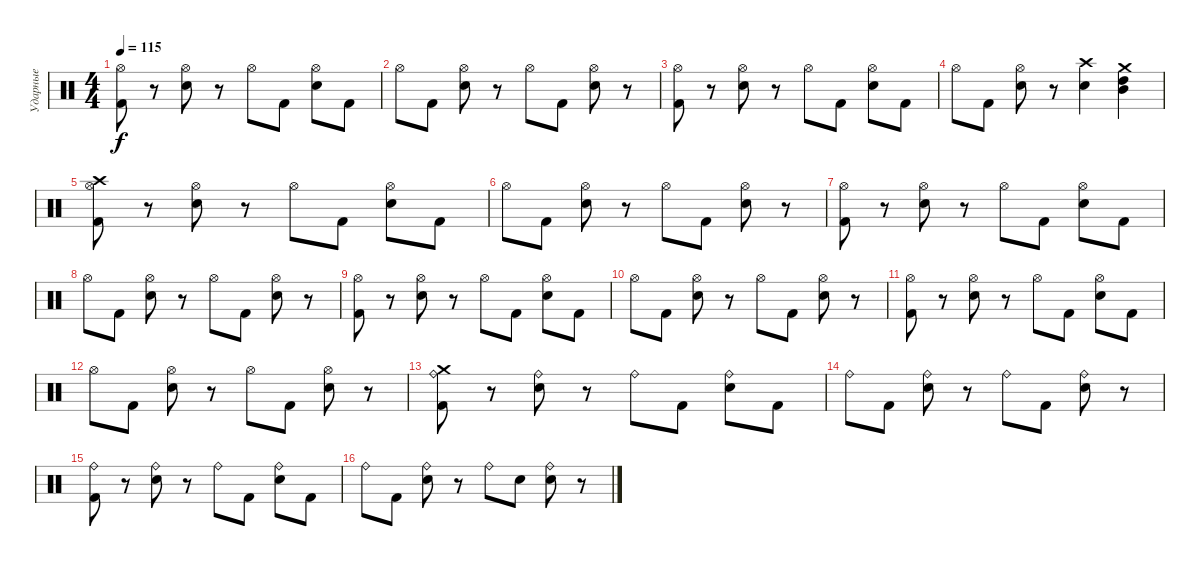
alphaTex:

\track ("Ударные" "Ударные") {instrument percussion}
\staff {score}
\articulation defaults
\ts (4 4)
\tempo 115
\clef neutral
\ks c
("Hi-Hat (open)" "Kick (hit) 2").8{dy f} r.8 ("Hi-Hat (open)" "Snare (hit) 2").8 r.8 "Hi-Hat (open)".8 "Kick (hit) 2".8 ("Hi-Hat (open)" "Snare (hit) 2").8 "Kick (hit) 2".8 |
"Hi-Hat (open)".8 "Kick (hit) 2".8 ("Hi-Hat (open)" "Snare (hit) 2").8 r.8 "Hi-Hat (open)".8 "Kick (hit) 2".8 ("Hi-Hat (open)" "Snare (hit) 2").8 r.8 |
("Hi-Hat (open)" "Kick (hit) 2").8 r.8 ("Hi-Hat (open)" "Snare (hit) 2").8 r.8 "Hi-Hat (open)".8 "Kick (hit) 2".8 ("Hi-Hat (open)" "Snare (hit) 2").8 "Kick (hit) 2".8 |
"Hi-Hat (open)".8 "Kick (hit) 2".8 ("Hi-Hat (open)" "Snare (hit) 2").8 r.8 ("Crash high (hit)" "Snare (hit) 2").4 ("Crash medium (hit)" "Mid Tom (hit)" "High Tom (hit)").4 |
("Hi-Hat (open)" "Crash high (hit)" "Kick (hit) 2").8 r.8 ("Hi-Hat (open)" "Snare (hit) 2").8 r.8 "Hi-Hat (open)".8 "Kick (hit) 2".8 ("Hi-Hat (open)" "Snare (hit) 2").8 "Kick (hit) 2".8 |
"Hi-Hat (open)".8 "Kick (hit) 2".8 ("Hi-Hat (open)" "Snare (hit) 2").8 r.8 "Hi-Hat (open)".8 "Kick (hit) 2".8 ("Hi-Hat (open)" "Snare (hit) 2").8 r.8 |
("Hi-Hat (open)" "Kick (hit) 2").8 r.8 ("Hi-Hat (open)" "Snare (hit) 2").8 r.8 "Hi-Hat (open)".8 "Kick (hit) 2".8 ("Hi-Hat (open)" "Snare (hit) 2").8 "Kick (hit) 2".8 |
"Hi-Hat (open)".8 "Kick (hit) 2".8 ("Hi-Hat (open)" "Snare (hit) 2").8 r.8 "Hi-Hat (open)".8 "Kick (hit) 2".8 ("Hi-Hat (open)" "Snare (hit) 2").8 r.8 |
("Hi-Hat (open)" "Kick (hit) 2").8 r.8 ("Hi-Hat (open)" "Snare (hit) 2").8 r.8 "Hi-Hat (open)".8 "Kick (hit) 2".8 ("Hi-Hat (open)" "Snare (hit) 2").8 "Kick (hit) 2".8 |
"Hi-Hat (open)".8 "Kick (hit) 2".8 ("Hi-Hat (open)" "Snare (hit) 2").8 r.8 "Hi-Hat (open)".8 "Kick (hit) 2".8 ("Hi-Hat (open)" "Snare (hit) 2").8 r.8 |
("Hi-Hat (open)" "Kick (hit) 2").8 r.8 ("Hi-Hat (open)" "Snare (hit) 2").8 r.8 "Hi-Hat (open)".8 "Kick (hit) 2".8 ("Hi-Hat (open)" "Snare (hit) 2").8 "Kick (hit) 2".8 |
"Hi-Hat (open)".8 "Kick (hit) 2".8 ("Hi-Hat (open)" "Snare (hit) 2").8 r.8 "Hi-Hat (open)".8 "Kick (hit) 2".8 ("Hi-Hat (open)" "Snare (hit) 2").8 r.8 |
("Ride (bell)" "Crash medium (hit)" "Kick (hit) 2").8 r.8 ("Ride (bell)" "Snare (hit) 2").8 r.8 "Ride (bell)".8 "Kick (hit) 2".8 ("Ride (bell)" "Snare (hit) 2").8 "Kick (hit) 2".8 |
"Ride (bell)".8 "Kick (hit) 2".8 ("Ride (bell)" "Snare (hit) 2").8 r.8 "Ride (bell)".8 "Kick (hit) 2".8 ("Ride (bell)" "Snare (hit) 2").8 r.8 |
("Ride (bell)" "Kick (hit) 2").8 r.8 ("Ride (bell)" "Snare (hit) 2").8 r.8 "Ride (bell)".8 "Kick (hit) 2".8 ("Ride (bell)" "Snare (hit) 2").8 "Kick (hit) 2".8 |
"Ride (bell)".8 "Kick (hit) 2".8 ("Ride (bell)" "Snare (hit) 2").8 r.8 "Ride (bell)".8 "Snare (hit) 2".8 ("Ride (bell)" "Snare (hit) 2").8 r.8
